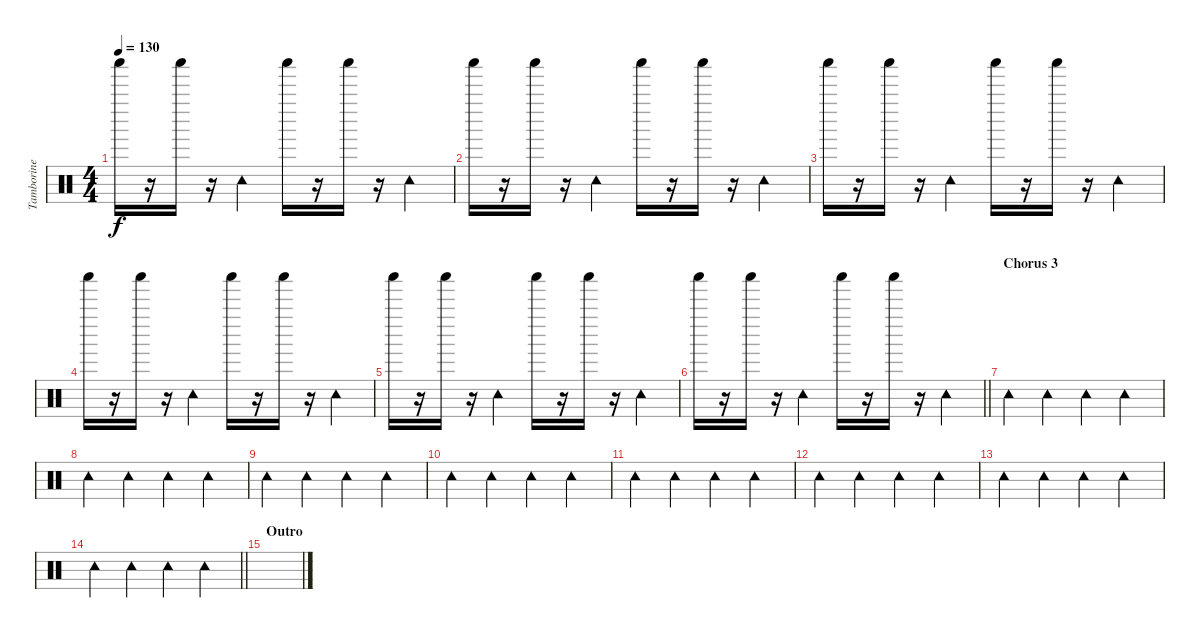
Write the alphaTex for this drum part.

\track ("Tamborine" "Tamborine") {instrument percussion}
\staff {score}
\articulation defaults
\ts (4 4)
\tempo 130
\clef neutral
\ks c "Shaker (hit)".16{dy f}
r.16 "Shaker (hit)".16 r.16 "Tambourine (hit)".4 "Shaker (hit)".16 r.16 "Shaker (hit)".16 r.16 "Tambourine (hit)".4 |
"Shaker (hit)".16 r.16 "Shaker (hit)".16 r.16 "Tambourine (hit)".4 "Shaker (hit)".16 r.16 "Shaker (hit)".16 r.16 "Tambourine (hit)".4 |
"Shaker (hit)".16 r.16 "Shaker (hit)".16 r.16 "Tambourine (hit)".4 "Shaker (hit)".16 r.16 "Shaker (hit)".16 r.16 "Tambourine (hit)".4 |
"Shaker (hit)".16 r.16 "Shaker (hit)".16 r.16 "Tambourine (hit)".4 "Shaker (hit)".16 r.16 "Shaker (hit)".16 r.16 "Tambourine (hit)".4 |
"Shaker (hit)".16 r.16 "Shaker (hit)".16 r.16 "Tambourine (hit)".4 "Shaker (hit)".16 r.16 "Shaker (hit)".16 r.16 "Tambourine (hit)".4 |
\barLineRight lightlight "Shaker (hit)".16
r.16 "Shaker (hit)".16 r.16 "Tambourine (hit)".4 "Shaker (hit)".16 r.16 "Shaker (hit)".16 r.16 "Tambourine (hit)".4 |
\section ("" "Chorus 3")
"Tambourine (hit)".4 "Tambourine (hit)".4 "Tambourine (hit)".4 "Tambourine (hit)".4 |
"Tambourine (hit)".4 "Tambourine (hit)".4 "Tambourine (hit)".4 "Tambourine (hit)".4 |
"Tambourine (hit)".4 "Tambourine (hit)".4 "Tambourine (hit)".4 "Tambourine (hit)".4 |
"Tambourine (hit)".4 "Tambourine (hit)".4 "Tambourine (hit)".4 "Tambourine (hit)".4 |
"Tambourine (hit)".4 "Tambourine (hit)".4 "Tambourine (hit)".4 "Tambourine (hit)".4 |
"Tambourine (hit)".4 "Tambourine (hit)".4 "Tambourine (hit)".4 "Tambourine (hit)".4 |
"Tambourine (hit)".4 "Tambourine (hit)".4 "Tambourine (hit)".4 "Tambourine (hit)".4 |
\barLineRight lightlight "Tambourine (hit)".4 "Tambourine (hit)".4 "Tambourine (hit)".4 "Tambourine (hit)".4
|
\section ("" "Outro")
